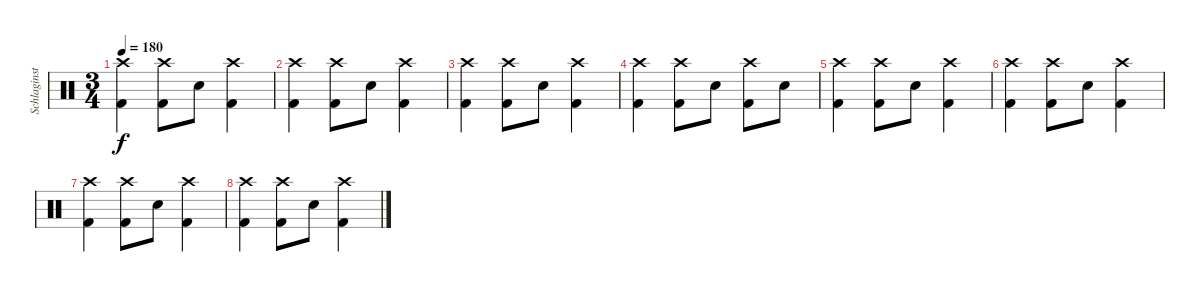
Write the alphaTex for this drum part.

\track ("Schlaginstrumente - Auswahl" "Schlaginst") {instrument percussion}
\staff {score}
\articulation defaults
\ts (3 4)
\tempo 180
\clef neutral
\ks c
("Crash high (hit)" "Kick (hit) 2").4{dy f} ("Crash high (hit)" "Kick (hit) 2").8 "Snare (hit) 2".8 ("Crash high (hit)" "Kick (hit) 2").4 |
("Crash high (hit)" "Kick (hit) 2").4 ("Crash high (hit)" "Kick (hit) 2").8 "Snare (hit) 2".8 ("Crash high (hit)" "Kick (hit) 2").4 |
("Crash high (hit)" "Kick (hit) 2").4 ("Crash high (hit)" "Kick (hit) 2").8 "Snare (hit) 2".8 ("Crash high (hit)" "Kick (hit) 2").4 |
("Crash high (hit)" "Kick (hit) 2").4 ("Crash high (hit)" "Kick (hit) 2").8 "Snare (hit) 2".8 ("Crash high (hit)" "Kick (hit) 2").8 "Snare (hit) 2".8 |
("Crash high (hit)" "Kick (hit) 2").4 ("Crash high (hit)" "Kick (hit) 2").8 "Snare (hit) 2".8 ("Crash high (hit)" "Kick (hit) 2").4 |
("Crash high (hit)" "Kick (hit) 2").4 ("Crash high (hit)" "Kick (hit) 2").8 "Snare (hit) 2".8 ("Crash high (hit)" "Kick (hit) 2").4 |
("Crash high (hit)" "Kick (hit) 2").4 ("Crash high (hit)" "Kick (hit) 2").8 "Snare (hit) 2".8 ("Crash high (hit)" "Kick (hit) 2").4 |
("Crash high (hit)" "Kick (hit) 2").4 ("Crash high (hit)" "Kick (hit) 2").8 "Snare (hit) 2".8 ("Crash high (hit)" "Kick (hit) 2").4
